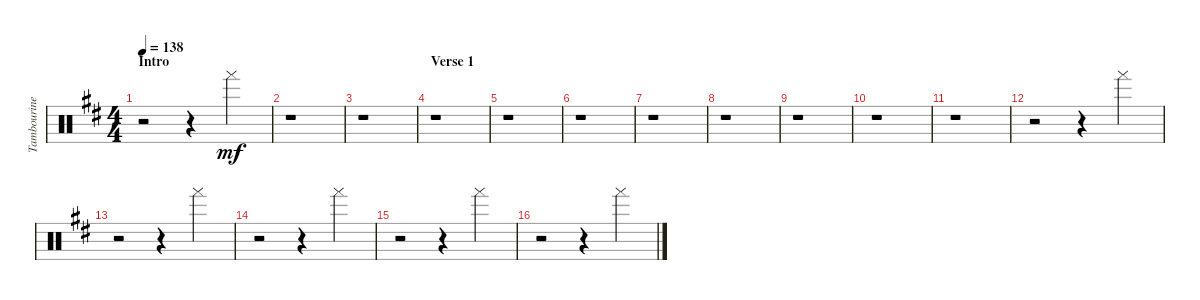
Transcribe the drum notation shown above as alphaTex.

\track ("Tambourine" "Tambourine") {instrument percussion}
\staff {score}
\articulation defaults
\ts (4 4)
\section ("" "Intro")
\tempo 138
\clef neutral
\ks d
r.2{dy mf} r.4 "Tambourine (hand)".4 |
r.1 |
r.1 |
\section ("" "Verse 1")
r.1 |
r.1 |
r.1 |
r.1 |
r.1 |
r.1 |
r.1 |
r.1 |
r.2 r.4 "Tambourine (hand)".4 |
r.2 r.4 "Tambourine (hand)".4 |
r.2 r.4 "Tambourine (hand)".4 |
r.2 r.4 "Tambourine (hand)".4 |
r.2 r.4 "Tambourine (hand)".4
